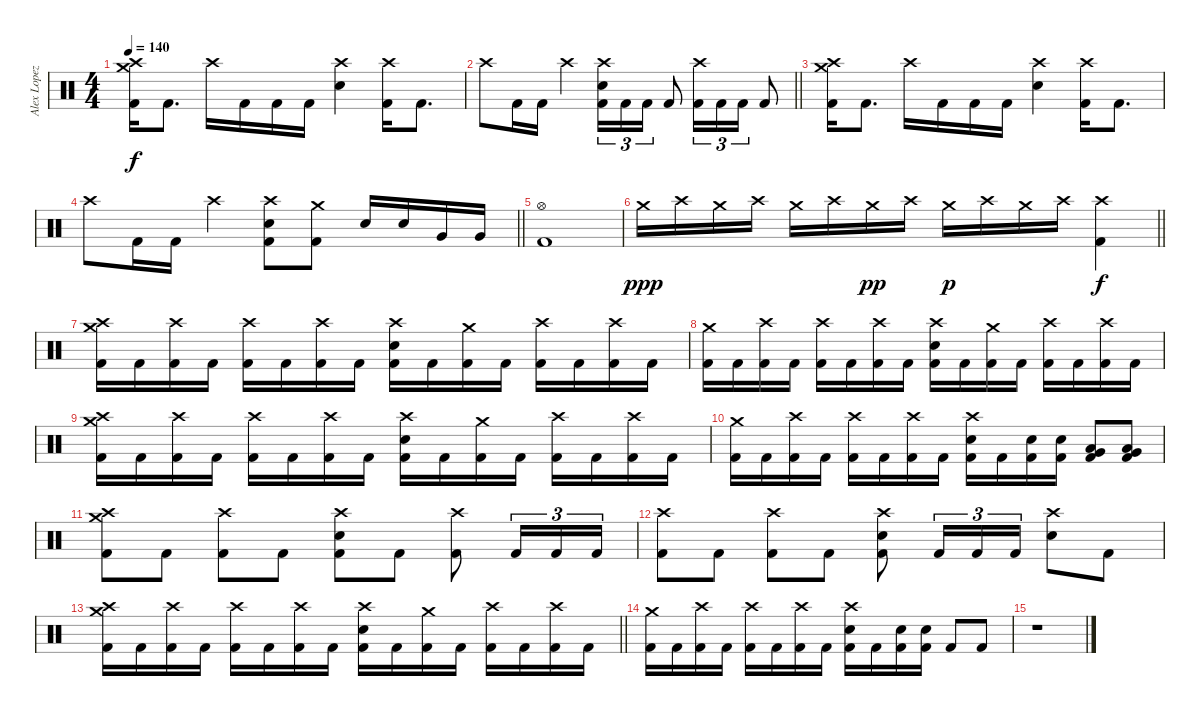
\track ("Alex Lopez" "Alex Lopez") {instrument percussion}
\staff {score}
\articulation defaults
\ts (4 4)
\tempo 140
\clef neutral
\ks c
("Crash medium (hit)" "Crash high (hit)" "Kick (hit) 2").16{dy f} "Kick (hit) 2".8{d} "Crash high (hit)".16 "Kick (hit) 2".16 "Kick (hit) 2".16 "Kick (hit) 2".16 ("Crash high (hit)" "Electric Snare (hit)").4 ("Crash high (hit)" "Kick (hit) 2").16 "Kick (hit) 2".8{d} |
\barLineRight lightlight "Crash high (hit)".8 "Kick (hit) 2".16 "Kick (hit) 2".16 "Crash high (hit)".4
("Crash high (hit)" "Electric Snare (hit)" "Kick (hit) 2").16{tu (3 2)} "Kick (hit) 2".16{tu (3 2)} "Kick (hit) 2".16{tu (3 2)} "Kick (hit) 2".8 ("Crash high (hit)" "Kick (hit) 2").16{tu (3 2)} "Kick (hit) 2".16{tu (3 2)} "Kick (hit) 2".16{tu (3 2)} "Kick (hit) 2".8 |
("Crash medium (hit)" "Crash high (hit)" "Kick (hit) 2").16 "Kick (hit) 2".8{d} "Crash high (hit)".16 "Kick (hit) 2".16 "Kick (hit) 2".16 "Kick (hit) 2".16 ("Crash high (hit)" "Electric Snare (hit)").4 ("Crash high (hit)" "Kick (hit) 2").16 "Kick (hit) 2".8{d} |
\barLineRight lightlight "Crash high (hit)".8 "Kick (hit) 2".16 "Kick (hit) 2".16 "Crash high (hit)".4
("Crash high (hit)" "Electric Snare (hit)" "Kick (hit) 2").8 ("Crash medium (hit)" "Kick (hit) 2").8 "Electric Snare (hit)".16 "Electric Snare (hit)".16 "Very Low Tom (hit)".16 "Very Low Tom (hit)".16 |
("Hi-Hat (open)" "Kick (hit) 2").1 |
\barLineRight lightlight "Crash medium (hit)".16{dy ppp} "Crash high (hit)".16 "Crash medium (hit)".16 "Crash high (hit)".16 "Crash medium (hit)".16 "Crash high (hit)".16 "Crash medium (hit)".16{dy pp} "Crash high (hit)".16 "Crash medium (hit)".16{dy p} "Crash high (hit)".16 "Crash medium (hit)".16 "Crash high (hit)".16
("Crash high (hit)" "Kick (hit) 2").4{dy f} |
("Crash medium (hit)" "Crash high (hit)" "Kick (hit) 2").16 "Kick (hit) 2".16 ("Crash high (hit)" "Kick (hit) 2").16 "Kick (hit) 2".16 ("Crash high (hit)" "Kick (hit) 2").16 "Kick (hit) 2".16 ("Crash high (hit)" "Kick (hit) 2").16 "Kick (hit) 2".16 ("Crash high (hit)" "Electric Snare (hit)" "Kick (hit) 2").16 "Kick (hit) 2".16 ("Crash medium (hit)" "Kick (hit) 2").16 "Kick (hit) 2".16 ("Crash high (hit)" "Kick (hit) 2").16 "Kick (hit) 2".16 ("Crash high (hit)" "Kick (hit) 2").16 "Kick (hit) 2".16 |
("Crash medium (hit)" "Kick (hit) 2").16 "Kick (hit) 2".16 ("Crash high (hit)" "Kick (hit) 2").16 "Kick (hit) 2".16 ("Crash high (hit)" "Kick (hit) 2").16 "Kick (hit) 2".16 ("Crash high (hit)" "Kick (hit) 2").16 "Kick (hit) 2".16 ("Crash high (hit)" "Electric Snare (hit)" "Kick (hit) 2").16 "Kick (hit) 2".16 ("Crash medium (hit)" "Kick (hit) 2").16 "Kick (hit) 2".16 ("Crash high (hit)" "Kick (hit) 2").16 "Kick (hit) 2".16 ("Crash high (hit)" "Kick (hit) 2").16 "Kick (hit) 2".16 |
("Crash medium (hit)" "Crash high (hit)" "Kick (hit) 2").16 "Kick (hit) 2".16 ("Crash high (hit)" "Kick (hit) 2").16 "Kick (hit) 2".16 ("Crash high (hit)" "Kick (hit) 2").16 "Kick (hit) 2".16 ("Crash high (hit)" "Kick (hit) 2").16 "Kick (hit) 2".16 ("Crash high (hit)" "Electric Snare (hit)" "Kick (hit) 2").16 "Kick (hit) 2".16 ("Crash medium (hit)" "Kick (hit) 2").16 "Kick (hit) 2".16 ("Crash high (hit)" "Kick (hit) 2").16 "Kick (hit) 2".16 ("Crash high (hit)" "Kick (hit) 2").16 "Kick (hit) 2".16 |
("Crash medium (hit)" "Kick (hit) 2").16 "Kick (hit) 2".16 ("Crash high (hit)" "Kick (hit) 2").16 "Kick (hit) 2".16 ("Crash high (hit)" "Kick (hit) 2").16 "Kick (hit) 2".16 ("Crash high (hit)" "Kick (hit) 2").16 "Kick (hit) 2".16 ("Crash high (hit)" "Electric Snare (hit)" "Kick (hit) 2").16 "Kick (hit) 2".16 ("Electric Snare (hit)" "Kick (hit) 2").16 ("Electric Snare (hit)" "Kick (hit) 2").16 ("Low Floor Tom (hit)" "Very Low Tom (hit)" "Kick (hit) 2").8 ("Low Floor Tom (hit)" "Very Low Tom (hit)" "Kick (hit) 2").8 |
("Crash medium (hit)" "Crash high (hit)" "Kick (hit) 2").8 "Kick (hit) 2".8 ("Crash high (hit)" "Kick (hit) 2").8 "Kick (hit) 2".8 ("Crash high (hit)" "Electric Snare (hit)" "Kick (hit) 2").8 "Kick (hit) 2".8 ("Crash high (hit)" "Kick (hit) 2").8 "Kick (hit) 2".16{tu (3 2)} "Kick (hit) 2".16{tu (3 2)} "Kick (hit) 2".16{tu (3 2)} |
("Crash high (hit)" "Kick (hit) 2").8 "Kick (hit) 2".8 ("Crash high (hit)" "Kick (hit) 2").8 "Kick (hit) 2".8 ("Crash high (hit)" "Electric Snare (hit)" "Kick (hit) 2").8 "Kick (hit) 2".16{tu (3 2)} "Kick (hit) 2".16{tu (3 2)} "Kick (hit) 2".16{tu (3 2)} ("Crash high (hit)" "Electric Snare (hit)").8 "Kick (hit) 2".8 |
\barLineRight lightlight
("Crash medium (hit)" "Crash high (hit)" "Kick (hit) 2").16 "Kick (hit) 2".16 ("Crash high (hit)" "Kick (hit) 2").16 "Kick (hit) 2".16 ("Crash high (hit)" "Kick (hit) 2").16 "Kick (hit) 2".16 ("Crash high (hit)" "Kick (hit) 2").16 "Kick (hit) 2".16 ("Crash high (hit)" "Electric Snare (hit)" "Kick (hit) 2").16 "Kick (hit) 2".16 ("Crash medium (hit)" "Kick (hit) 2").16 "Kick (hit) 2".16 ("Crash high (hit)" "Kick (hit) 2").16 "Kick (hit) 2".16 ("Crash high (hit)" "Kick (hit) 2").16 "Kick (hit) 2".16 |
("Crash medium (hit)" "Kick (hit) 2").16 "Kick (hit) 2".16 ("Crash high (hit)" "Kick (hit) 2").16 "Kick (hit) 2".16 ("Crash high (hit)" "Kick (hit) 2").16 "Kick (hit) 2".16 ("Crash high (hit)" "Kick (hit) 2").16 "Kick (hit) 2".16 ("Crash high (hit)" "Electric Snare (hit)" "Kick (hit) 2").16 "Kick (hit) 2".16 ("Electric Snare (hit)" "Kick (hit) 2").16 ("Electric Snare (hit)" "Kick (hit) 2").16 "Kick (hit) 2".8 "Kick (hit) 2".8 |
r.1
